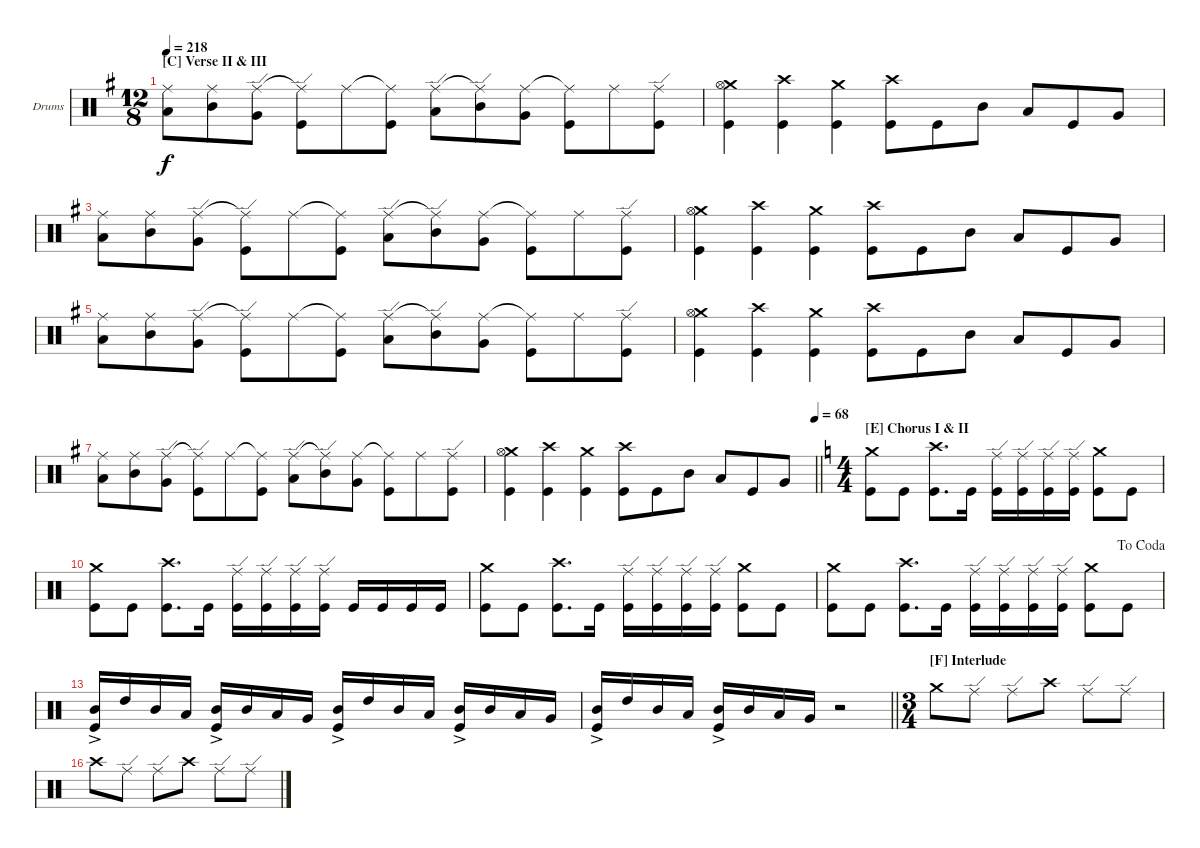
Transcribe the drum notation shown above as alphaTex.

\bracketExtendMode nobrackets
\firstSystemTrackNameOrientation horizontal
\otherSystemsTrackNameOrientation horizontal
\defaultBarNumberDisplay FirstOfSystem
\track ("Drums" "Drums") {instrument percussion}
\staff {score}
\articulation defaults
\ts (12 8)
\section ("C" "Verse II & III")
\tempo 218
\clef neutral
\scale
0.267606
\ks g
("Ride (middle)" "Low Tom (hit)").8{dy f} ("Ride (middle)" "Mid Tom (hit)").8 ("Ride (edge)" "Very Low Tom (hit)").8 ("Ride (edge)"{t} "Kick (hit)").8 "Ride (middle)".8 ("Ride (middle)"{t} "Kick (hit)").8 ("Ride (edge)" "Low Tom (hit)").8 ("Ride (edge)"{t} "Mid Tom (hit)").8 ("Ride (middle)" "Very Low Tom (hit)").8 ("Ride (middle)"{t} "Kick (hit)").8 "Ride (middle)".8 ("Ride (edge)" "Kick (hit)").8 |
\scale
0.232394 ("Crash medium (hit)" "Kick (hit)" "Hi-Hat (open)").4 ("Crash high (hit)" "Kick (hit)").4 ("Crash medium (hit)" "Kick (hit)").4 ("Crash high (hit)" "Kick (hit)").8 "Kick (hit)".8 "Mid Tom (hit)".8 "Low Tom (hit)".8 "Kick (hit)".8 "Very Low Tom (hit)".8 |
\scale
0.267606 ("Ride (middle)" "Low Tom (hit)").8 ("Ride (middle)" "Mid Tom (hit)").8 ("Ride (edge)" "Very Low Tom (hit)").8 ("Ride (edge)"{t} "Kick (hit)").8 "Ride (middle)".8 ("Ride (middle)"{t} "Kick (hit)").8 ("Ride (edge)" "Low Tom (hit)").8 ("Ride (edge)"{t} "Mid Tom (hit)").8 ("Ride (middle)" "Very Low Tom (hit)").8 ("Ride (middle)"{t} "Kick (hit)").8 "Ride (middle)".8 ("Ride (edge)" "Kick (hit)").8 |
\scale
0.232394 ("Crash medium (hit)" "Kick (hit)" "Hi-Hat (open)").4 ("Crash high (hit)" "Kick (hit)").4 ("Crash medium (hit)" "Kick (hit)").4 ("Crash high (hit)" "Kick (hit)").8 "Kick (hit)".8 "Mid Tom (hit)".8 "Low Tom (hit)".8 "Kick (hit)".8 "Very Low Tom (hit)".8 |
\scale
0.267606 ("Ride (middle)" "Low Tom (hit)").8 ("Ride (middle)" "Mid Tom (hit)").8 ("Ride (edge)" "Very Low Tom (hit)").8 ("Ride (edge)"{t} "Kick (hit)").8 "Ride (middle)".8 ("Ride (middle)"{t} "Kick (hit)").8 ("Ride (edge)" "Low Tom (hit)").8 ("Ride (edge)"{t} "Mid Tom (hit)").8 ("Ride (middle)" "Very Low Tom (hit)").8 ("Ride (middle)"{t} "Kick (hit)").8 "Ride (middle)".8 ("Ride (edge)" "Kick (hit)").8 |
\scale
0.232394 ("Crash medium (hit)" "Kick (hit)" "Hi-Hat (open)").4 ("Crash high (hit)" "Kick (hit)").4 ("Crash medium (hit)" "Kick (hit)").4 ("Crash high (hit)" "Kick (hit)").8 "Kick (hit)".8 "Mid Tom (hit)".8 "Low Tom (hit)".8 "Kick (hit)".8 "Very Low Tom (hit)".8 |
\scale
0.267606 ("Ride (middle)" "Low Tom (hit)").8 ("Ride (middle)" "Mid Tom (hit)").8 ("Ride (edge)" "Very Low Tom (hit)").8 ("Ride (edge)"{t} "Kick (hit)").8 "Ride (middle)".8 ("Ride (middle)"{t} "Kick (hit)").8 ("Ride (edge)" "Low Tom (hit)").8 ("Ride (edge)"{t} "Mid Tom (hit)").8 ("Ride (middle)" "Very Low Tom (hit)").8 ("Ride (middle)"{t} "Kick (hit)").8 "Ride (middle)".8 ("Ride (edge)" "Kick (hit)").8 |
\tempo (68 1)
\scale
0.232394
\barLineRight lightlight
("Crash medium (hit)" "Kick (hit)" "Hi-Hat (open)").4 ("Crash high (hit)" "Kick (hit)").4 ("Crash medium (hit)" "Kick (hit)").4 ("Crash high (hit)" "Kick (hit)").8 "Kick (hit)".8 "Mid Tom (hit)".8 "Low Tom (hit)".8 "Kick (hit)".8 "Very Low Tom (hit)".8 |
\ts (4 4)
\section ("E" "Chorus I & II")
\ks c
("Crash medium (hit)" "Kick (hit)").8 "Kick (hit)".8 ("Crash high (hit)" "Kick (hit)").8{d} "Kick (hit)".16 ("Ride (edge)" "Kick (hit)").16 ("Ride (edge)" "Kick (hit)").16 ("Ride (edge)" "Kick (hit)").16 ("Ride (edge)" "Kick (hit)").16 ("Crash medium (hit)" "Kick (hit)").8 "Kick (hit)".8 |
("Crash medium (hit)" "Kick (hit)").8 "Kick (hit)".8 ("Crash high (hit)" "Kick (hit)").8{d} "Kick (hit)".16 ("Ride (edge)" "Kick (hit)").16 ("Ride (edge)" "Kick (hit)").16 ("Ride (edge)" "Kick (hit)").16 ("Ride (edge)" "Kick (hit)").16 "Kick (hit)".16 "Kick (hit)".16 "Kick (hit)".16 "Kick (hit)".16 |
("Crash medium (hit)" "Kick (hit)").8 "Kick (hit)".8 ("Crash high (hit)" "Kick (hit)").8{d} "Kick (hit)".16 ("Ride (edge)" "Kick (hit)").16 ("Ride (edge)" "Kick (hit)").16 ("Ride (edge)" "Kick (hit)").16 ("Ride (edge)" "Kick (hit)").16 ("Crash medium (hit)" "Kick (hit)").8 "Kick (hit)".8 |
\jump dacoda
("Crash medium (hit)" "Kick (hit)").8 "Kick (hit)".8 ("Crash high (hit)" "Kick (hit)").8{d} "Kick (hit)".16 ("Ride (edge)" "Kick (hit)").16 ("Ride (edge)" "Kick (hit)").16 ("Ride (edge)" "Kick (hit)").16 ("Ride (edge)" "Kick (hit)").16 ("Crash medium (hit)" "Kick (hit)").8 "Kick (hit)".8 |
("Kick (hit)" "Mid Tom (hit)"{ac}).16 "High Tom (hit)".16 "Mid Tom (hit)".16 "Low Tom (hit)".16 ("Mid Tom (hit)"{ac} "Kick (hit)"{ac}).16 "Mid Tom (hit)".16 "Low Tom (hit)".16 "Very Low Tom (hit)".16 ("Kick (hit)"{ac} "Mid Tom (hit)"{ac}).16 "High Tom (hit)".16 "Mid Tom (hit)".16 "Low Tom (hit)".16 ("Mid Tom (hit)"{ac} "Kick (hit)"{ac}).16 "Mid Tom (hit)".16 "Low Tom (hit)".16 "Very Low Tom (hit)".16 |
\barLineRight lightlight
("Kick (hit)"{ac} "Mid Tom (hit)"{ac}).16 "High Tom (hit)".16 "Mid Tom (hit)".16 "Low Tom (hit)".16 ("Mid Tom (hit)"{ac} "Kick (hit)"{ac}).16 "Mid Tom (hit)".16 "Low Tom (hit)".16 "Very Low Tom (hit)".16 r.2 |
\ts (3 4)
\section ("F" "Interlude")
"Crash medium (hit)".8 "Ride (edge)".8 "Ride (edge)".8 "Crash high (hit)".8 "Ride (edge)".8 "Ride (edge)".8 |
"Crash high (hit)".8 "Ride (edge)".8 "Ride (edge)".8 "Crash high (hit)".8 "Ride (edge)".8 "Ride (edge)".8
